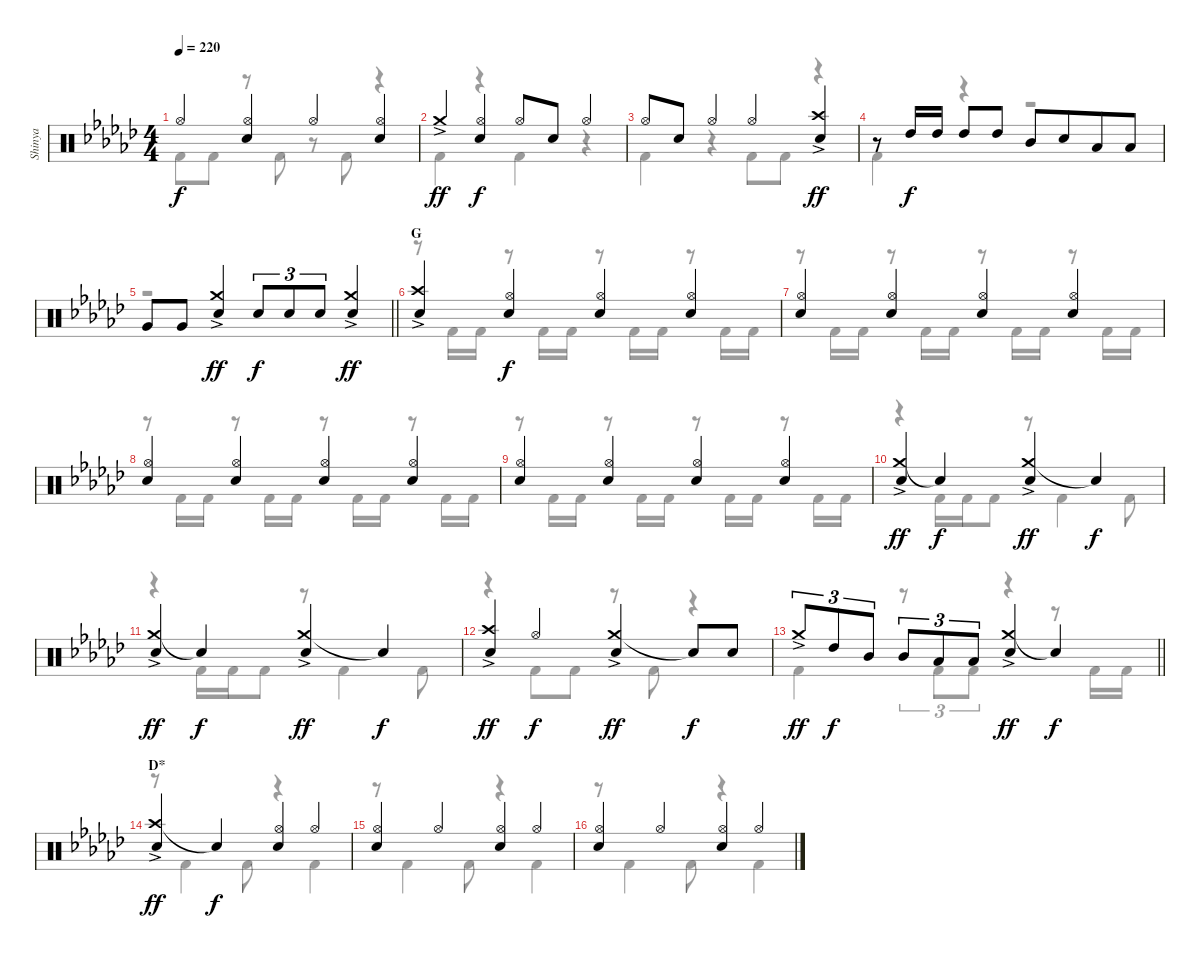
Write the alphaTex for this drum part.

\track ("Shinya" "Shinya") {instrument percussion}
\staff {score}
\articulation defaults
\voice
\ts (4 4)
\tempo 220
\clef neutral
\ks ebminor "Hi-Hat (open)".4{dy f}
("Hi-Hat (open)" "Snare (hit) 2").4 "Hi-Hat (open)".4 ("Hi-Hat (open)" "Snare (hit) 2").4 |
"Crash medium (hit)"{ac}.4{dy ff} ("Hi-Hat (open)" "Snare (hit) 2").4{dy f} "Hi-Hat (open)".8 "Snare (hit) 2".8 "Hi-Hat (open)".4 |
"Hi-Hat (open)".8 "Snare (hit) 2".8 "Hi-Hat (open)".4 "Hi-Hat (open)".4 ("Crash high (hit)"{ac} "Snare (hit) 2").4{dy ff} |
r.8 "High Tom (hit)".16{dy f} "High Tom (hit)".16 "High Tom (hit)".8 "High Tom (hit)".8 "Mid Tom (hit)".8 "Snare (hit) 2".8{beam merge} "Low Tom (hit)".8 "Low Tom (hit)".8 |
\barLineRight lightlight "Very Low Tom (hit)".8 "Very Low Tom (hit)".8
("Crash medium (hit)"{ac} "Snare (hit) 2").4{dy ff} "Snare (hit) 2".8{tu (3 2) dy f} "Snare (hit) 2".8{tu (3 2)} "Snare (hit) 2".8{tu (3 2)} ("Crash medium (hit)"{ac} "Snare (hit) 2").4{dy ff} |
\section ("" "G")
("Crash high (hit)"{ac} "Snare (hit) 2").4 ("Hi-Hat (open)" "Snare (hit) 2").4{dy f} ("Hi-Hat (open)" "Snare (hit) 2").4 ("Hi-Hat (open)" "Snare (hit) 2").4 |
("Hi-Hat (open)" "Snare (hit) 2").4 ("Hi-Hat (open)" "Snare (hit) 2").4 ("Hi-Hat (open)" "Snare (hit) 2").4 ("Hi-Hat (open)" "Snare (hit) 2").4 |
("Hi-Hat (open)" "Snare (hit) 2").4 ("Hi-Hat (open)" "Snare (hit) 2").4 ("Hi-Hat (open)" "Snare (hit) 2").4 ("Hi-Hat (open)" "Snare (hit) 2").4 |
("Hi-Hat (open)" "Snare (hit) 2").4 ("Hi-Hat (open)" "Snare (hit) 2").4 ("Hi-Hat (open)" "Snare (hit) 2").4 ("Hi-Hat (open)" "Snare (hit) 2").4 |
("Crash medium (hit)"{ac} "Snare (hit) 2").4{dy ff} "Snare (hit)"{t}.4{dy f} ("Crash medium (hit)"{ac} "Snare (hit) 2").4{dy ff} "Snare (hit)"{t}.4{dy f} |
("Crash medium (hit)"{ac} "Snare (hit) 2").4{dy ff} "Snare (hit)"{t}.4{dy f} ("Crash medium (hit)"{ac} "Snare (hit) 2").4{dy ff} "Snare (hit)"{t}.4{dy f} |
("Crash high (hit)"{ac} "Snare (hit) 2").4{dy ff} "Hi-Hat (open)".4{dy f} ("Crash medium (hit)"{ac} "Snare (hit) 2").4{dy ff} "Snare (hit)"{t}.8{dy f} "Snare (hit) 2".8 |
\barLineRight lightlight "Crash medium (hit)"{ac}.8{tu (3 2) dy ff} "High Tom (hit)".8{tu (3 2) dy f} "Mid Tom (hit)".8{tu (3 2)} "Mid Tom (hit)".8{tu (3 2)} "Low Floor Tom (hit)".8{tu (3 2)} "Low Floor Tom (hit)".8{tu (3 2)}
("Crash medium (hit)"{ac} "Snare (hit) 2").4{dy ff} "Snare (hit)"{t}.4{dy f} |
\section ("" "D*")
("Crash high (hit)"{ac} "Snare (hit) 2").4{dy ff} "Snare (hit)"{t}.4{dy f} ("Hi-Hat (open)" "Snare (hit) 2").4 "Hi-Hat (open)".4 |
("Hi-Hat (open)" "Snare (hit) 2").4 "Hi-Hat (open)".4 ("Hi-Hat (open)" "Snare (hit) 2").4 "Hi-Hat (open)".4 |
("Hi-Hat (open)" "Snare (hit) 2").4 "Hi-Hat (open)".4 ("Hi-Hat (open)" "Snare (hit) 2").4 "Hi-Hat (open)".4
\voice
\clef neutral
\ottava regular
\simile none
\ks ebminor "Kick (hit) 2".8{dy f} "Kick (hit) 2".8
r.8 "Kick (hit) 2".8 r.8 "Kick (hit) 2".8 r.4 |
"Kick (hit) 2".4 r.4 "Kick (hit) 2".4 r.4 |
"Kick (hit) 2".4 r.4 "Kick (hit) 2".8 "Kick (hit) 2".8 r.4 |
"Kick (hit) 2".4 r.4 r.2 |
\barLineRight lightlight
r.1 |
r.8 "Kick (hit) 2".16 "Kick (hit) 2".16 r.8 "Kick (hit) 2".16 "Kick (hit) 2".16 r.8 "Kick (hit) 2".16 "Kick (hit) 2".16 r.8 "Kick (hit) 2".16 "Kick (hit) 2".16 |
r.8 "Kick (hit) 2".16 "Kick (hit) 2".16 r.8 "Kick (hit) 2".16 "Kick (hit) 2".16 r.8 "Kick (hit) 2".16 "Kick (hit) 2".16 r.8 "Kick (hit) 2".16 "Kick (hit) 2".16 |
r.8 "Kick (hit) 2".16 "Kick (hit) 2".16 r.8 "Kick (hit) 2".16 "Kick (hit) 2".16 r.8 "Kick (hit) 2".16 "Kick (hit) 2".16 r.8 "Kick (hit) 2".16 "Kick (hit) 2".16 |
r.8 "Kick (hit) 2".16 "Kick (hit) 2".16 r.8 "Kick (hit) 2".16 "Kick (hit) 2".16 r.8 "Kick (hit) 2".16 "Kick (hit) 2".16 r.8 "Kick (hit) 2".16 "Kick (hit) 2".16 |
r.4 "Kick (hit) 2".16 "Kick (hit) 2".16 "Kick (hit) 2".8 r.8 "Kick (hit) 2".4 "Kick (hit) 2".8 |
r.4 "Kick (hit) 2".16 "Kick (hit) 2".16 "Kick (hit) 2".8 r.8 "Kick (hit) 2".4 "Kick (hit) 2".8 |
r.4 "Kick (hit) 2".8 "Kick (hit) 2".8 r.8 "Kick (hit) 2".8 r.4 |
\barLineRight lightlight "Kick (hit) 2".4
r.8{tu (3 2)} "Kick (hit) 2".8{tu (3 2)} "Kick (hit) 2".8{tu (3 2)} r.4 r.8 "Kick (hit) 2".16 "Kick (hit) 2".16 |
r.8 "Kick (hit) 2".4 "Kick (hit) 2".8 r.4 "Kick (hit) 2".4 |
r.8 "Kick (hit) 2".4 "Kick (hit) 2".8 r.4 "Kick (hit) 2".4 |
r.8 "Kick (hit) 2".4 "Kick (hit) 2".8 r.4 "Kick (hit) 2".4
